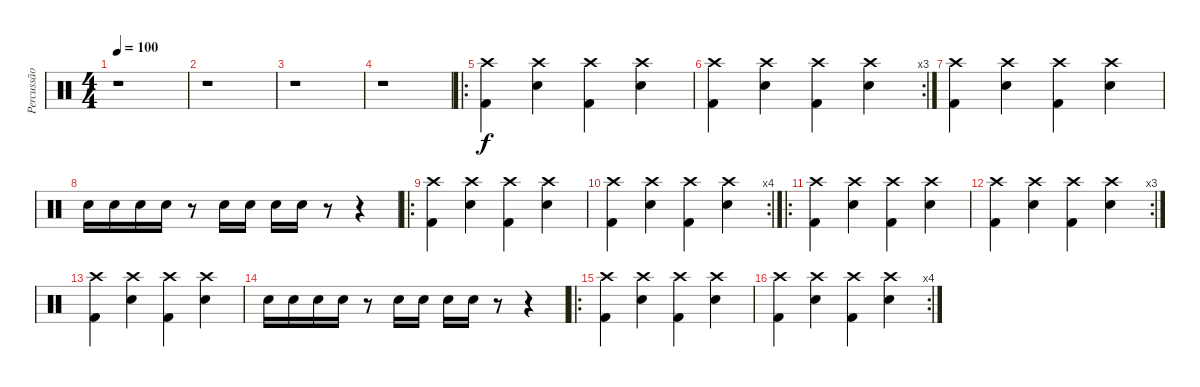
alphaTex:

\track ("Percussão" "Percussão") {instrument percussion}
\staff {score}
\articulation defaults
\ts (4 4)
\tempo 100
\clef neutral
\ks c
r.1{dy f} |
r.1 |
r.1 |
r.1 |
\ro
("Crash high (hit)" "Kick (hit) 2").4 ("Crash high (hit)" "Snare (hit) 2").4 ("Crash high (hit)" "Kick (hit) 2").4 ("Crash high (hit)" "Snare (hit) 2").4 |
\rc 3
("Crash high (hit)" "Kick (hit) 2").4 ("Crash high (hit)" "Snare (hit) 2").4 ("Crash high (hit)" "Kick (hit) 2").4 ("Crash high (hit)" "Snare (hit) 2").4 |
("Crash high (hit)" "Kick (hit) 2").4 ("Crash high (hit)" "Snare (hit) 2").4 ("Crash high (hit)" "Kick (hit) 2").4 ("Crash high (hit)" "Snare (hit) 2").4 |
"Snare (hit) 2".16 "Snare (hit) 2".16 "Snare (hit) 2".16 "Snare (hit) 2".16 r.8 "Snare (hit) 2".16 "Snare (hit) 2".16 "Snare (hit) 2".16 "Snare (hit) 2".16 r.8 r.4 |
\ro
("Crash high (hit)" "Kick (hit) 2").4 ("Crash high (hit)" "Electric Snare (hit)").4 ("Crash high (hit)" "Kick (hit) 2").4 ("Crash high (hit)" "Electric Snare (hit)").4 |
\rc 4
("Crash high (hit)" "Kick (hit) 2").4 ("Crash high (hit)" "Electric Snare (hit)").4 ("Crash high (hit)" "Kick (hit) 2").4 ("Crash high (hit)" "Electric Snare (hit)").4 |
\ro
("Crash high (hit)" "Kick (hit) 2").4 ("Crash high (hit)" "Snare (hit) 2").4 ("Crash high (hit)" "Kick (hit) 2").4 ("Crash high (hit)" "Snare (hit) 2").4 |
\rc 3
("Crash high (hit)" "Kick (hit) 2").4 ("Crash high (hit)" "Snare (hit) 2").4 ("Crash high (hit)" "Kick (hit) 2").4 ("Crash high (hit)" "Snare (hit) 2").4 |
("Crash high (hit)" "Kick (hit) 2").4 ("Crash high (hit)" "Snare (hit) 2").4 ("Crash high (hit)" "Kick (hit) 2").4 ("Crash high (hit)" "Snare (hit) 2").4 |
"Snare (hit) 2".16 "Snare (hit) 2".16 "Snare (hit) 2".16 "Snare (hit) 2".16 r.8 "Snare (hit) 2".16 "Snare (hit) 2".16 "Snare (hit) 2".16 "Snare (hit) 2".16 r.8 r.4 |
\ro
("Crash high (hit)" "Kick (hit) 2").4 ("Crash high (hit)" "Electric Snare (hit)").4 ("Crash high (hit)" "Kick (hit) 2").4 ("Crash high (hit)" "Electric Snare (hit)").4 |
\rc 4
("Crash high (hit)" "Kick (hit) 2").4 ("Crash high (hit)" "Electric Snare (hit)").4 ("Crash high (hit)" "Kick (hit) 2").4 ("Crash high (hit)" "Electric Snare (hit)").4
